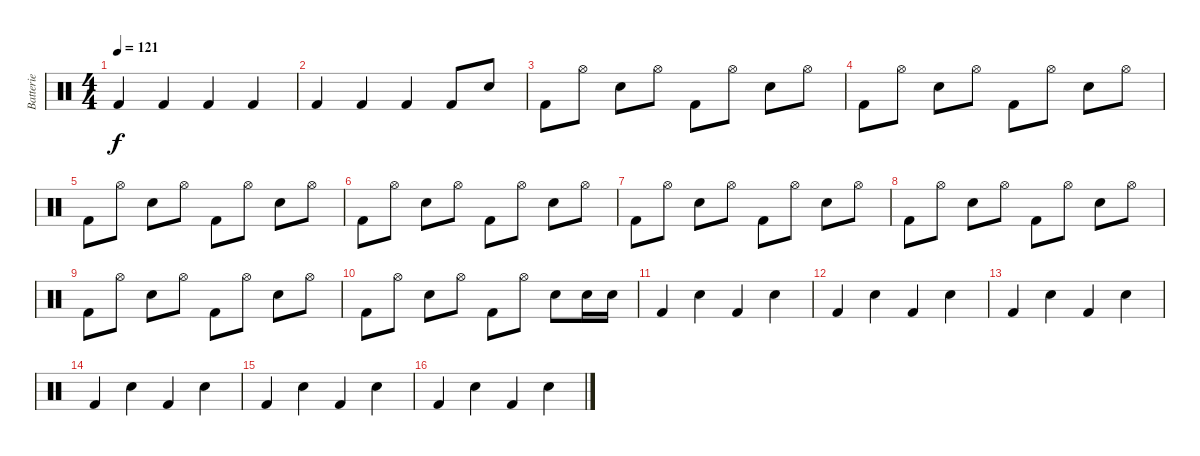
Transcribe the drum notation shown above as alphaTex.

\track ("Batterie" "Batterie") {instrument percussion}
\staff {score}
\articulation defaults
\ts (4 4)
\tempo 121
\clef neutral
\ks c "Kick (hit) 2".4{dy f} "Kick (hit) 2".4 "Kick (hit) 2".4 "Kick (hit) 2".4
|
"Kick (hit) 2".4 "Kick (hit) 2".4 "Kick (hit) 2".4 "Kick (hit) 2".8 "Electric Snare (hit)".8 |
"Kick (hit) 2".8 "Hi-Hat (open)".8 "Snare (hit) 2".8 "Hi-Hat (open)".8 "Kick (hit) 2".8 "Hi-Hat (open)".8 "Snare (hit) 2".8 "Hi-Hat (open)".8 |
"Kick (hit) 2".8 "Hi-Hat (open)".8 "Snare (hit) 2".8 "Hi-Hat (open)".8 "Kick (hit) 2".8 "Hi-Hat (open)".8 "Snare (hit) 2".8 "Hi-Hat (open)".8 |
"Kick (hit) 2".8 "Hi-Hat (open)".8 "Snare (hit) 2".8 "Hi-Hat (open)".8 "Kick (hit) 2".8 "Hi-Hat (open)".8 "Snare (hit) 2".8 "Hi-Hat (open)".8 |
"Kick (hit) 2".8 "Hi-Hat (open)".8 "Snare (hit) 2".8 "Hi-Hat (open)".8 "Kick (hit) 2".8 "Hi-Hat (open)".8 "Snare (hit) 2".8 "Hi-Hat (open)".8 |
"Kick (hit) 2".8 "Hi-Hat (open)".8 "Snare (hit) 2".8 "Hi-Hat (open)".8 "Kick (hit) 2".8 "Hi-Hat (open)".8 "Snare (hit) 2".8 "Hi-Hat (open)".8 |
"Kick (hit) 2".8 "Hi-Hat (open)".8 "Snare (hit) 2".8 "Hi-Hat (open)".8 "Kick (hit) 2".8 "Hi-Hat (open)".8 "Snare (hit) 2".8 "Hi-Hat (open)".8 |
"Kick (hit) 2".8 "Hi-Hat (open)".8 "Snare (hit) 2".8 "Hi-Hat (open)".8 "Kick (hit) 2".8 "Hi-Hat (open)".8 "Snare (hit) 2".8 "Hi-Hat (open)".8 |
"Kick (hit) 2".8 "Hi-Hat (open)".8 "Snare (hit) 2".8 "Hi-Hat (open)".8 "Kick (hit) 2".8 "Hi-Hat (open)".8 "Snare (hit) 2".8 "Electric Snare (hit)".16 "Electric Snare (hit)".16 |
"Kick (hit) 2".4 "Snare (hit) 2".4 "Kick (hit) 2".4 "Snare (hit) 2".4 |
"Kick (hit) 2".4 "Snare (hit) 2".4 "Kick (hit) 2".4 "Snare (hit) 2".4 |
"Kick (hit) 2".4 "Snare (hit) 2".4 "Kick (hit) 2".4 "Snare (hit) 2".4 |
"Kick (hit) 2".4 "Snare (hit) 2".4 "Kick (hit) 2".4 "Snare (hit) 2".4 |
"Kick (hit) 2".4 "Snare (hit) 2".4 "Kick (hit) 2".4 "Snare (hit) 2".4 |
"Kick (hit) 2".4 "Snare (hit) 2".4 "Kick (hit) 2".4 "Snare (hit) 2".4
